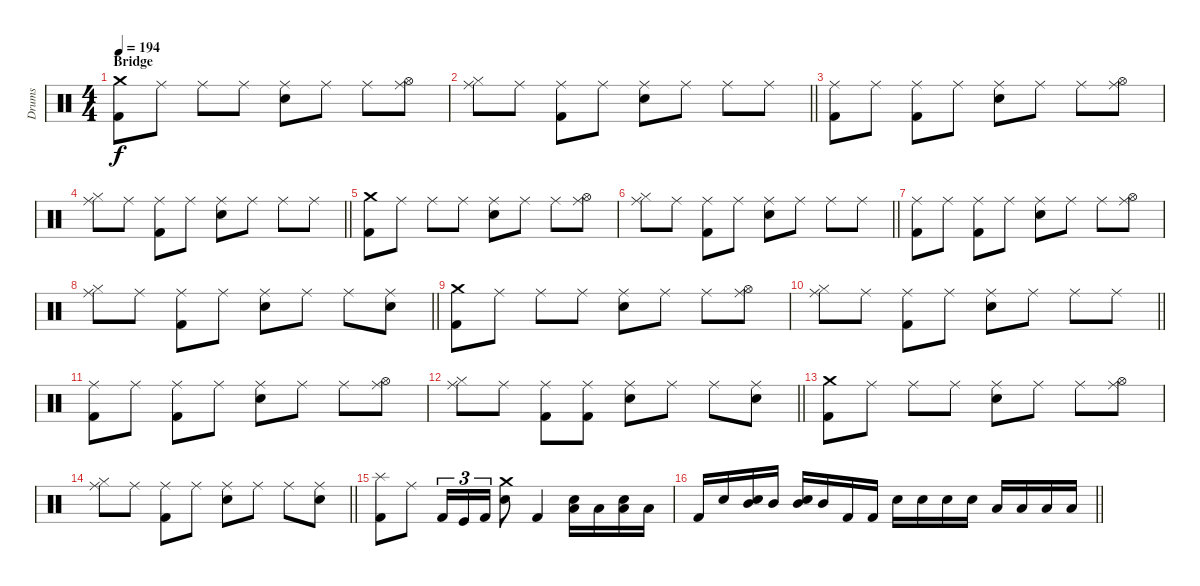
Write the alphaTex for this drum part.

\track ("Drums" "Drums") {instrument percussion}
\staff {score}
\articulation defaults
\ts (4 4)
\section ("" "Bridge")
\tempo 194
\clef neutral
\ks c
("Crash medium (hit)" "Kick (hit) 2").8{dy f} "Ride (middle)".8 "Ride (middle)".8 "Ride (middle)".8 ("Ride (middle)" "Snare (hit) 2").8 "Ride (middle)".8 "Ride (middle)".8 ("Ride (middle)" "Hi-Hat (open)").8 |
\barLineRight lightlight
("Ride (middle)" "Hi-Hat (closed)").8 "Ride (middle)".8 ("Ride (middle)" "Kick (hit) 2").8 "Ride (middle)".8 ("Ride (middle)" "Snare (hit) 2").8 "Ride (middle)".8 "Ride (middle)".8 "Ride (middle)".8 |
("Ride (middle)" "Kick (hit) 2").8 "Ride (middle)".8 ("Ride (middle)" "Kick (hit) 2").8 "Ride (middle)".8 ("Ride (middle)" "Snare (hit) 2").8 "Ride (middle)".8 "Ride (middle)".8 ("Ride (middle)" "Hi-Hat (open)").8 |
\barLineRight lightlight
("Ride (middle)" "Hi-Hat (closed)").8 "Ride (middle)".8 ("Ride (middle)" "Kick (hit) 2").8 "Ride (middle)".8 ("Ride (middle)" "Snare (hit) 2").8 "Ride (middle)".8 "Ride (middle)".8 "Ride (middle)".8 |
("Crash medium (hit)" "Kick (hit) 2").8 "Ride (middle)".8 "Ride (middle)".8 "Ride (middle)".8 ("Ride (middle)" "Snare (hit) 2").8 "Ride (middle)".8 "Ride (middle)".8 ("Ride (middle)" "Hi-Hat (open)").8 |
\barLineRight lightlight
("Ride (middle)" "Hi-Hat (closed)").8 "Ride (middle)".8 ("Ride (middle)" "Kick (hit) 2").8 "Ride (middle)".8 ("Ride (middle)" "Snare (hit) 2").8 "Ride (middle)".8 "Ride (middle)".8 "Ride (middle)".8 |
("Ride (middle)" "Kick (hit) 2").8 "Ride (middle)".8 ("Ride (middle)" "Kick (hit) 2").8 "Ride (middle)".8 ("Ride (middle)" "Snare (hit) 2").8 "Ride (middle)".8 "Ride (middle)".8 ("Ride (middle)" "Hi-Hat (open)").8 |
\barLineRight lightlight
("Ride (middle)" "Hi-Hat (closed)").8 "Ride (middle)".8 ("Ride (middle)" "Kick (hit) 2").8 "Ride (middle)".8 ("Ride (middle)" "Snare (hit) 2").8 "Ride (middle)".8 "Ride (middle)".8 ("Ride (middle)" "Snare (hit) 2").8 |
("Crash medium (hit)" "Kick (hit) 2").8 "Ride (middle)".8 "Ride (middle)".8 "Ride (middle)".8 ("Ride (middle)" "Snare (hit) 2").8 "Ride (middle)".8 "Ride (middle)".8 ("Ride (middle)" "Hi-Hat (open)").8 |
\barLineRight lightlight
("Ride (middle)" "Hi-Hat (closed)").8 "Ride (middle)".8 ("Ride (middle)" "Kick (hit) 2").8 "Ride (middle)".8 ("Ride (middle)" "Snare (hit) 2").8 "Ride (middle)".8 "Ride (middle)".8 "Ride (middle)".8 |
("Ride (middle)" "Kick (hit) 2").8 "Ride (middle)".8 ("Ride (middle)" "Kick (hit) 2").8 "Ride (middle)".8 ("Ride (middle)" "Snare (hit) 2").8 "Ride (middle)".8 "Ride (middle)".8 ("Ride (middle)" "Hi-Hat (open)").8 |
\barLineRight lightlight
("Ride (middle)" "Hi-Hat (closed)").8 "Ride (middle)".8 ("Ride (middle)" "Kick (hit) 2").8 ("Ride (middle)" "Kick (hit) 2").8 ("Ride (middle)" "Snare (hit) 2").8 "Ride (middle)".8 "Ride (middle)".8 ("Ride (middle)" "Snare (hit) 2").8 |
("Crash medium (hit)" "Kick (hit) 2").8 "Ride (middle)".8 "Ride (middle)".8 "Ride (middle)".8 ("Ride (middle)" "Snare (hit) 2").8 "Ride (middle)".8 "Ride (middle)".8 ("Ride (middle)" "Hi-Hat (open)").8 |
\barLineRight lightlight
("Ride (middle)" "Hi-Hat (closed)").8 "Ride (middle)".8 ("Ride (middle)" "Kick (hit) 2").8 "Ride (middle)".8 ("Ride (middle)" "Snare (hit) 2").8 "Ride (middle)".8 "Ride (middle)".8 ("Ride (middle)" "Snare (hit) 2").8 |
("Splash (hit)" "Kick (hit) 2").8 "Ride (middle)".8 "Kick (hit) 2".16{tu (3 2)} "Kick (hit)".16{tu (3 2)} "Kick (hit) 2".16{tu (3 2)} ("Crash medium (hit)" "Snare (hit) 2").8 "Kick (hit) 2".4 ("Low Tom (hit)" "Snare (hit) 2").16 "Low Tom (hit)".16 ("Low Tom (hit)" "Snare (hit) 2").16 "Low Tom (hit)".16 |
\barLineRight lightlight "Kick (hit) 2".16 "Snare (hit) 2".16
("Mid Tom (hit)" "Snare (hit) 2").16 "Mid Tom (hit)".16 ("Mid Tom (hit)" "Snare (hit) 2").16 "Mid Tom (hit)".16 "Kick (hit) 2".16 "Kick (hit) 2".16 "Snare (hit) 2".16 "Snare (hit) 2".16 "Snare (hit) 2".16 "Snare (hit) 2".16 "Low Tom (hit)".16 "Low Tom (hit)".16 "Low Tom (hit)".16 "Low Tom (hit)".16
